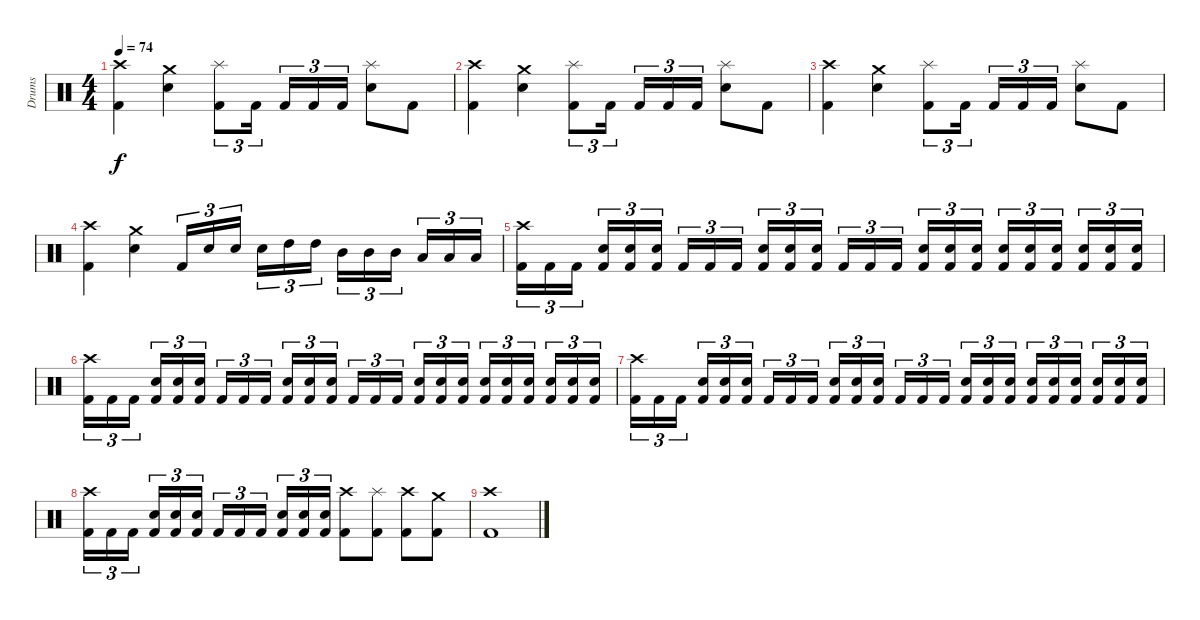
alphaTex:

\track ("Drums" "Drums") {instrument percussion}
\staff {score}
\articulation defaults
\ts (4 4)
\tempo 74
\clef neutral
\ks c
("Crash high (hit)" "Kick (hit) 2").4{dy f} ("Crash medium (hit)" "Snare (hit) 2").4 ("Splash (hit)" "Kick (hit) 2").8{tu (3 2)} "Kick (hit) 2".16{tu (3 2)} "Kick (hit) 2".16{tu (3 2)} "Kick (hit) 2".16{tu (3 2)} "Kick (hit) 2".16{tu (3 2)} ("Splash (hit)" "Snare (hit) 2").8 "Kick (hit) 2".8 |
("Crash high (hit)" "Kick (hit) 2").4 ("Crash medium (hit)" "Snare (hit) 2").4 ("Splash (hit)" "Kick (hit) 2").8{tu (3 2)} "Kick (hit) 2".16{tu (3 2)} "Kick (hit) 2".16{tu (3 2)} "Kick (hit) 2".16{tu (3 2)} "Kick (hit) 2".16{tu (3 2)} ("Splash (hit)" "Snare (hit) 2").8 "Kick (hit) 2".8 |
("Crash high (hit)" "Kick (hit) 2").4 ("Crash medium (hit)" "Snare (hit) 2").4 ("Splash (hit)" "Kick (hit) 2").8{tu (3 2)} "Kick (hit) 2".16{tu (3 2)} "Kick (hit) 2".16{tu (3 2)} "Kick (hit) 2".16{tu (3 2)} "Kick (hit) 2".16{tu (3 2)} ("Splash (hit)" "Snare (hit) 2").8 "Kick (hit) 2".8 |
("Crash high (hit)" "Kick (hit) 2").4 ("Crash medium (hit)" "Snare (hit) 2").4 "Kick (hit) 2".16{tu (3 2)} "Snare (hit) 2".16{tu (3 2)} "Snare (hit) 2".16{tu (3 2)} "Snare (hit) 2".16{tu (3 2)} "High Tom (hit)".16{tu (3 2)} "High Tom (hit)".16{tu (3 2)} "Mid Tom (hit)".16{tu (3 2)} "Mid Tom (hit)".16{tu (3 2)} "Mid Tom (hit)".16{tu (3 2)} "Low Tom (hit)".16{tu (3 2)} "Low Tom (hit)".16{tu (3 2)} "Low Tom (hit)".16{tu (3 2)} |
("Crash high (hit)" "Kick (hit) 2").16{tu (3 2)} "Kick (hit) 2".16{tu (3 2)} "Kick (hit) 2".16{tu (3 2)} ("Snare (hit) 2" "Kick (hit) 2").16{tu (3 2)} ("Snare (hit) 2" "Kick (hit) 2").16{tu (3 2)} ("Snare (hit) 2" "Kick (hit) 2").16{tu (3 2)} "Kick (hit) 2".16{tu (3 2)} "Kick (hit) 2".16{tu (3 2)} "Kick (hit) 2".16{tu (3 2)} ("Snare (hit) 2" "Kick (hit) 2").16{tu (3 2)} ("Snare (hit) 2" "Kick (hit) 2").16{tu (3 2)} ("Snare (hit) 2" "Kick (hit) 2").16{tu (3 2)} "Kick (hit) 2".16{tu (3 2)} "Kick (hit) 2".16{tu (3 2)} "Kick (hit) 2".16{tu (3 2)} ("Snare (hit) 2" "Kick (hit) 2").16{tu (3 2)} ("Snare (hit) 2" "Kick (hit) 2").16{tu (3 2)} ("Snare (hit) 2" "Kick (hit) 2").16{tu (3 2)} ("Snare (hit) 2" "Kick (hit) 2").16{tu (3 2)} ("Snare (hit) 2" "Kick (hit) 2").16{tu (3 2)} ("Snare (hit) 2" "Kick (hit) 2").16{tu (3 2)} ("Snare (hit) 2" "Kick (hit) 2").16{tu (3 2)} ("Snare (hit) 2" "Kick (hit) 2").16{tu (3 2)} ("Snare (hit) 2" "Kick (hit) 2").16{tu (3 2)} |
("Crash high (hit)" "Kick (hit) 2").16{tu (3 2)} "Kick (hit) 2".16{tu (3 2)} "Kick (hit) 2".16{tu (3 2)} ("Snare (hit) 2" "Kick (hit) 2").16{tu (3 2)} ("Snare (hit) 2" "Kick (hit) 2").16{tu (3 2)} ("Snare (hit) 2" "Kick (hit) 2").16{tu (3 2)} "Kick (hit) 2".16{tu (3 2)} "Kick (hit) 2".16{tu (3 2)} "Kick (hit) 2".16{tu (3 2)} ("Snare (hit) 2" "Kick (hit) 2").16{tu (3 2)} ("Snare (hit) 2" "Kick (hit) 2").16{tu (3 2)} ("Snare (hit) 2" "Kick (hit) 2").16{tu (3 2)} "Kick (hit) 2".16{tu (3 2)} "Kick (hit) 2".16{tu (3 2)} "Kick (hit) 2".16{tu (3 2)} ("Snare (hit) 2" "Kick (hit) 2").16{tu (3 2)} ("Snare (hit) 2" "Kick (hit) 2").16{tu (3 2)} ("Snare (hit) 2" "Kick (hit) 2").16{tu (3 2)} ("Snare (hit) 2" "Kick (hit) 2").16{tu (3 2)} ("Snare (hit) 2" "Kick (hit) 2").16{tu (3 2)} ("Snare (hit) 2" "Kick (hit) 2").16{tu (3 2)} ("Snare (hit) 2" "Kick (hit) 2").16{tu (3 2)} ("Snare (hit) 2" "Kick (hit) 2").16{tu (3 2)} ("Snare (hit) 2" "Kick (hit) 2").16{tu (3 2)} |
("Crash high (hit)" "Kick (hit) 2").16{tu (3 2)} "Kick (hit) 2".16{tu (3 2)} "Kick (hit) 2".16{tu (3 2)} ("Snare (hit) 2" "Kick (hit) 2").16{tu (3 2)} ("Snare (hit) 2" "Kick (hit) 2").16{tu (3 2)} ("Snare (hit) 2" "Kick (hit) 2").16{tu (3 2)} "Kick (hit) 2".16{tu (3 2)} "Kick (hit) 2".16{tu (3 2)} "Kick (hit) 2".16{tu (3 2)} ("Snare (hit) 2" "Kick (hit) 2").16{tu (3 2)} ("Snare (hit) 2" "Kick (hit) 2").16{tu (3 2)} ("Snare (hit) 2" "Kick (hit) 2").16{tu (3 2)} "Kick (hit) 2".16{tu (3 2)} "Kick (hit) 2".16{tu (3 2)} "Kick (hit) 2".16{tu (3 2)} ("Snare (hit) 2" "Kick (hit) 2").16{tu (3 2)} ("Snare (hit) 2" "Kick (hit) 2").16{tu (3 2)} ("Snare (hit) 2" "Kick (hit) 2").16{tu (3 2)} ("Snare (hit) 2" "Kick (hit) 2").16{tu (3 2)} ("Snare (hit) 2" "Kick (hit) 2").16{tu (3 2)} ("Snare (hit) 2" "Kick (hit) 2").16{tu (3 2)} ("Snare (hit) 2" "Kick (hit) 2").16{tu (3 2)} ("Snare (hit) 2" "Kick (hit) 2").16{tu (3 2)} ("Snare (hit) 2" "Kick (hit) 2").16{tu (3 2)} |
("Crash high (hit)" "Kick (hit) 2").16{tu (3 2)} "Kick (hit) 2".16{tu (3 2)} "Kick (hit) 2".16{tu (3 2)} ("Snare (hit) 2" "Kick (hit) 2").16{tu (3 2)} ("Snare (hit) 2" "Kick (hit) 2").16{tu (3 2)} ("Snare (hit) 2" "Kick (hit) 2").16{tu (3 2)} "Kick (hit) 2".16{tu (3 2)} "Kick (hit) 2".16{tu (3 2)} "Kick (hit) 2".16{tu (3 2)} ("Snare (hit) 2" "Kick (hit) 2").16{tu (3 2)} ("Snare (hit) 2" "Kick (hit) 2").16{tu (3 2)} ("Snare (hit) 2" "Kick (hit) 2").16{tu (3 2)} ("Crash high (hit)" "Kick (hit) 2").8 ("Splash (hit)" "Kick (hit) 2").8 ("Crash high (hit)" "Kick (hit) 2").8 ("Crash medium (hit)" "Kick (hit) 2").8 |
("Crash high (hit)" "Kick (hit) 2").1
